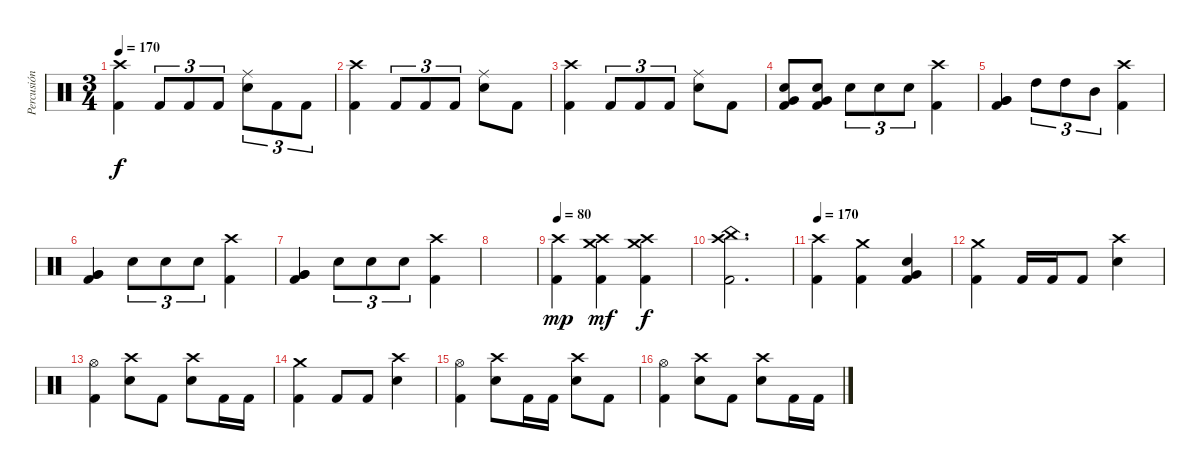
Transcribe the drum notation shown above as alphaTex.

\track ("Percusión" "Percusión") {instrument percussion}
\staff {score}
\articulation defaults
\ts (3 4)
\tempo 170
\clef neutral
\ks c
("Crash high (hit)" "Kick (hit) 2").4{dy f} "Kick (hit) 2".8{tu (3 2)} "Kick (hit) 2".8{tu (3 2)} "Kick (hit) 2".8{tu (3 2)} ("Ride (middle)" "Snare (hit) 2").8{tu (3 2)} "Kick (hit) 2".8{tu (3 2)} "Kick (hit) 2".8{tu (3 2)} |
("Crash high (hit)" "Kick (hit) 2").4 "Kick (hit) 2".8{tu (3 2)} "Kick (hit) 2".8{tu (3 2)} "Kick (hit) 2".8{tu (3 2)} ("Ride (middle)" "Snare (hit) 2").8 "Kick (hit) 2".8 |
("Crash high (hit)" "Kick (hit) 2").4 "Kick (hit) 2".8{tu (3 2)} "Kick (hit) 2".8{tu (3 2)} "Kick (hit) 2".8{tu (3 2)} ("Ride (middle)" "Snare (hit) 2").8 "Kick (hit) 2".8 |
("Snare (hit) 2" "Very Low Tom (hit)" "Kick (hit) 2").8 ("Snare (hit) 2" "Very Low Tom (hit)" "Kick (hit) 2").8 "Snare (hit) 2".8{tu (3 2)} "Snare (hit) 2".8{tu (3 2)} "Snare (hit) 2".8{tu (3 2)} ("Crash high (hit)" "Kick (hit) 2").4 |
("Very Low Tom (hit)" "Very Low Tom (hit)" "Kick (hit) 2").4 "High Tom (hit)".8{tu (3 2)} "High Tom (hit)".8{tu (3 2)} "Mid Tom (hit)".8{tu (3 2)} ("Crash high (hit)" "Kick (hit) 2").4 |
("Very Low Tom (hit)" "Very Low Tom (hit)" "Kick (hit) 2").4 "Snare (hit) 2".8{tu (3 2)} "Snare (hit) 2".8{tu (3 2)} "Snare (hit) 2".8{tu (3 2)} ("Crash high (hit)" "Kick (hit) 2").4 |
("Very Low Tom (hit)" "Very Low Tom (hit)" "Kick (hit) 2").4 "Snare (hit) 2".8{tu (3 2)} "Snare (hit) 2".8{tu (3 2)} "Snare (hit) 2".8{tu (3 2)} ("Crash high (hit)" "Kick (hit) 2").4 |
|
\tempo 80
("Crash high (hit)" "Kick (hit) 2").4{dy mp} ("Crash medium (hit)" "Crash high (hit)" "Kick (hit) 2").4{dy mf} ("Crash high (hit)" "Crash medium (hit)" "Kick (hit) 2").4{dy f} |
("China (hit)" "Crash high (hit)" "Kick (hit) 2").2{d} |
\tempo 170
("Crash high (hit)" "Kick (hit) 2").4 ("Crash medium (hit)" "Kick (hit) 2").4 ("Snare (hit) 2" "Very Low Tom (hit)" "Kick (hit) 2").4 |
("Crash medium (hit)" "Kick (hit) 2").4 "Kick (hit) 2".16 "Kick (hit) 2".16 "Kick (hit) 2".8 ("Crash high (hit)" "Snare (hit) 2").4 |
("Hi-Hat (open)" "Kick (hit) 2").4 ("Crash high (hit)" "Snare (hit) 2").8 "Kick (hit) 2".8 ("Crash high (hit)" "Snare (hit) 2").8 "Kick (hit) 2".16 "Kick (hit) 2".16 |
("Crash medium (hit)" "Kick (hit) 2").4 "Kick (hit) 2".8 "Kick (hit) 2".8 ("Crash high (hit)" "Snare (hit) 2").4 |
("Hi-Hat (open)" "Kick (hit) 2").4 ("Crash high (hit)" "Snare (hit) 2").8 "Kick (hit) 2".16 "Kick (hit) 2".16 ("Crash high (hit)" "Snare (hit) 2").8 "Kick (hit) 2".8 |
("Hi-Hat (open)" "Kick (hit) 2").4 ("Crash high (hit)" "Snare (hit) 2").8 "Kick (hit) 2".8 ("Crash high (hit)" "Snare (hit) 2").8 "Kick (hit) 2".16 "Kick (hit) 2".16
